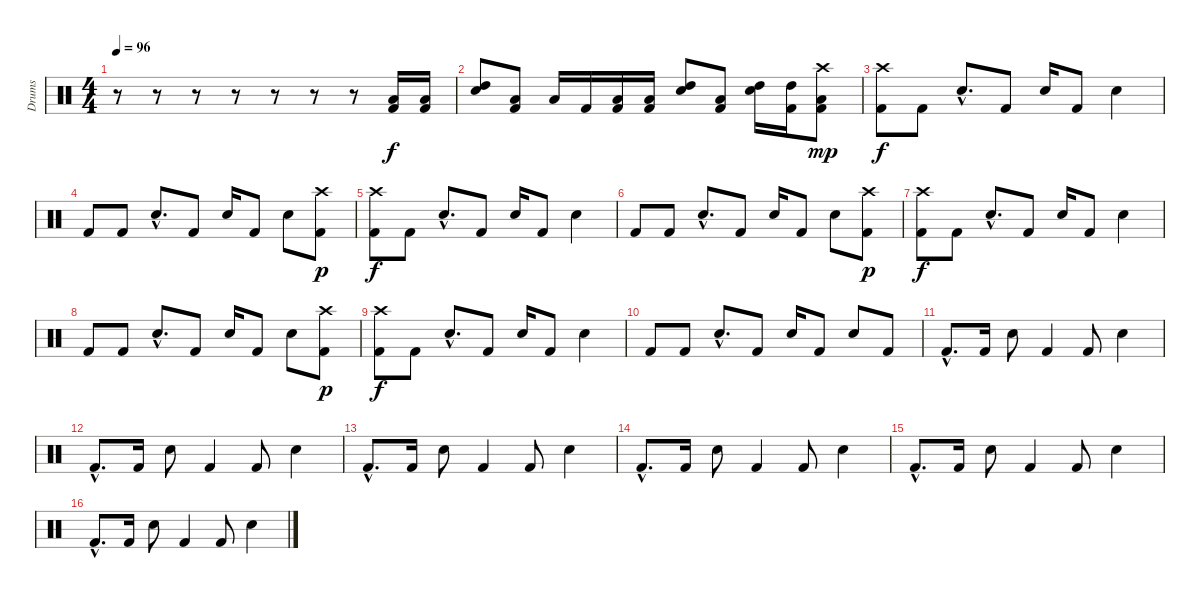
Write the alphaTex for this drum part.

\track ("Drums" "Drums") {instrument percussion}
\staff {score}
\articulation defaults
\ts (4 4)
\tempo 96
\clef neutral
\ks c
r.8{dy f} r.8 r.8 r.8 r.8 r.8 r.8 ("Kick (hit) 2" "Low Tom (hit)").16 ("Kick (hit) 2" "Low Tom (hit)").16 |
("Snare (hit) 2" "High Tom (hit)").8 ("Kick (hit) 2" "Low Tom (hit)").8 "Low Tom (hit)".16 "Kick (hit) 2".16 ("Kick (hit) 2" "Low Tom (hit)").16 ("Kick (hit) 2" "Low Tom (hit)").16 ("Snare (hit) 2" "High Tom (hit)").8 ("Kick (hit) 2" "Low Tom (hit)").8 ("Snare (hit) 2" "High Tom (hit)").16 ("Kick (hit) 2" "High Tom (hit)").16 ("Crash high (hit)" "Kick (hit) 2" "Low Tom (hit)").8{dy mp} |
("Crash high (hit)" "Kick (hit) 2").8{dy f} "Kick (hit) 2".8 "Snare (hit) 2"{hac}.8{d} "Kick (hit) 2".8 "Snare (hit) 2".16 "Kick (hit) 2".8 "Snare (hit) 2".4 |
"Kick (hit) 2".8 "Kick (hit) 2".8 "Snare (hit) 2"{hac}.8{d} "Kick (hit) 2".8 "Snare (hit) 2".16 "Kick (hit) 2".8 "Snare (hit) 2".8 ("Crash high (hit)" "Kick (hit) 2").8{dy p} |
("Crash high (hit)" "Kick (hit) 2").8{dy f} "Kick (hit) 2".8 "Snare (hit) 2"{hac}.8{d} "Kick (hit) 2".8 "Snare (hit) 2".16 "Kick (hit) 2".8 "Snare (hit) 2".4 |
"Kick (hit) 2".8 "Kick (hit) 2".8 "Snare (hit) 2"{hac}.8{d} "Kick (hit) 2".8 "Snare (hit) 2".16 "Kick (hit) 2".8 "Snare (hit) 2".8 ("Crash high (hit)" "Kick (hit) 2").8{dy p} |
("Crash high (hit)" "Kick (hit) 2").8{dy f} "Kick (hit) 2".8 "Snare (hit) 2"{hac}.8{d} "Kick (hit) 2".8 "Snare (hit) 2".16 "Kick (hit) 2".8 "Snare (hit) 2".4 |
"Kick (hit) 2".8 "Kick (hit) 2".8 "Snare (hit) 2"{hac}.8{d} "Kick (hit) 2".8 "Snare (hit) 2".16 "Kick (hit) 2".8 "Snare (hit) 2".8 ("Crash high (hit)" "Kick (hit) 2").8{dy p} |
("Crash high (hit)" "Kick (hit) 2").8{dy f} "Kick (hit) 2".8 "Snare (hit) 2"{hac}.8{d} "Kick (hit) 2".8 "Snare (hit) 2".16 "Kick (hit) 2".8 "Snare (hit) 2".4 |
"Kick (hit) 2".8 "Kick (hit) 2".8 "Snare (hit) 2"{hac}.8{d} "Kick (hit) 2".8 "Snare (hit) 2".16 "Kick (hit) 2".8 "Snare (hit) 2".8 "Kick (hit) 2".8 |
"Kick (hit) 2"{hac}.8{d} "Kick (hit) 2".16 "Snare (hit) 2".8 "Kick (hit) 2".4 "Kick (hit) 2".8 "Snare (hit) 2".4 |
"Kick (hit) 2"{hac}.8{d} "Kick (hit) 2".16 "Snare (hit) 2".8 "Kick (hit) 2".4 "Kick (hit) 2".8 "Snare (hit) 2".4 |
"Kick (hit) 2"{hac}.8{d} "Kick (hit) 2".16 "Snare (hit) 2".8 "Kick (hit) 2".4 "Kick (hit) 2".8 "Snare (hit) 2".4 |
"Kick (hit) 2"{hac}.8{d} "Kick (hit) 2".16 "Snare (hit) 2".8 "Kick (hit) 2".4 "Kick (hit) 2".8 "Snare (hit) 2".4 |
"Kick (hit) 2"{hac}.8{d} "Kick (hit) 2".16 "Snare (hit) 2".8 "Kick (hit) 2".4 "Kick (hit) 2".8 "Snare (hit) 2".4 |
"Kick (hit) 2"{hac}.8{d} "Kick (hit) 2".16 "Snare (hit) 2".8 "Kick (hit) 2".4 "Kick (hit) 2".8 "Snare (hit) 2".4
